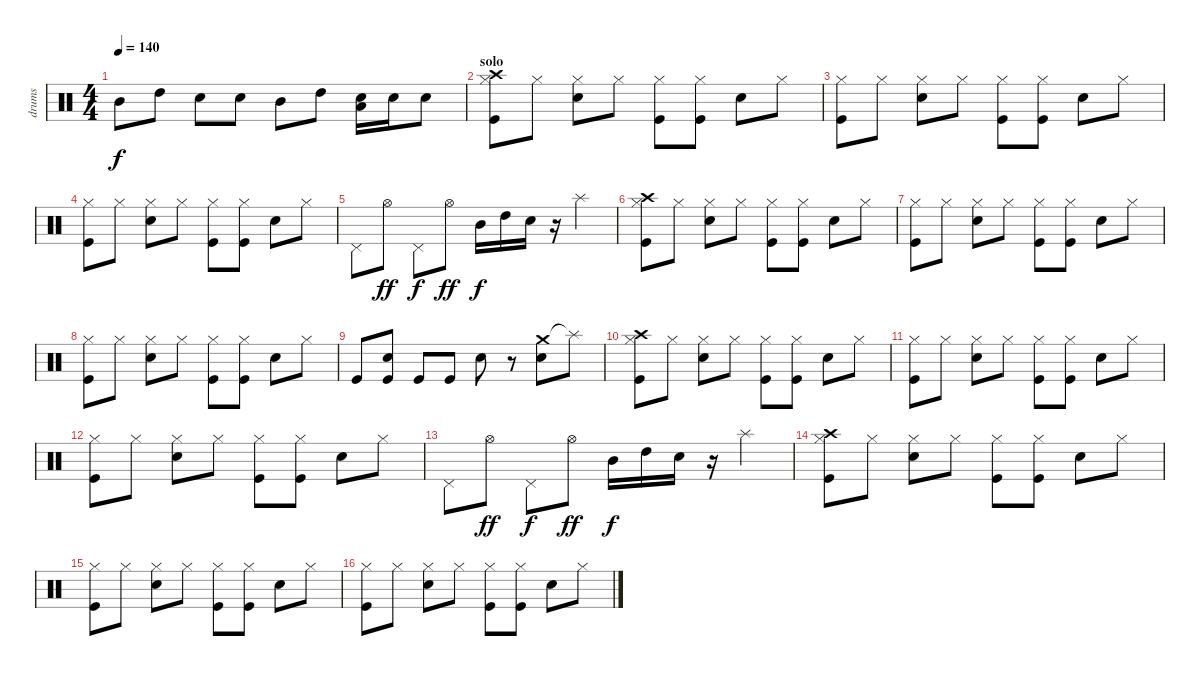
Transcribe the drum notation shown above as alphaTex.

\track ("drums" "drums") {instrument percussion}
\staff {score}
\articulation defaults
\ts (4 4)
\tempo 140
\clef neutral
\ks c "Mid Tom (hit)".8{dy f} "High Tom (hit)".8 "Snare (hit) 2".8 "Snare (hit) 2".8 "Mid Tom (hit)".8 "High Tom (hit)".8
("Electric Snare (hit)" "Low Tom (hit)").16 "Electric Snare (hit)".16 "Electric Snare (hit)".8 |
\section ("" "solo")
("Crash high (hit)" "Hi-Hat (closed)" "Kick (hit)").8 "Hi-Hat (closed)".8 ("Hi-Hat (closed)" "Snare (hit) 2").8 "Hi-Hat (closed)".8 ("Hi-Hat (closed)" "Kick (hit)").8 ("Hi-Hat (closed)" "Kick (hit)").8 "Snare (hit) 2".8 "Hi-Hat (closed)".8 |
("Hi-Hat (closed)" "Kick (hit)").8 "Hi-Hat (closed)".8 ("Hi-Hat (closed)" "Snare (hit) 2").8 "Hi-Hat (closed)".8 ("Hi-Hat (closed)" "Kick (hit)").8 ("Hi-Hat (closed)" "Kick (hit)").8 "Snare (hit) 2".8 "Hi-Hat (closed)".8 |
("Hi-Hat (closed)" "Kick (hit)").8 "Hi-Hat (closed)".8 ("Hi-Hat (closed)" "Snare (hit) 2").8 "Hi-Hat (closed)".8 ("Hi-Hat (closed)" "Kick (hit)").8 ("Hi-Hat (closed)" "Kick (hit)").8 "Snare (hit) 2".8 "Hi-Hat (closed)".8 |
"Pedal Hi-Hat (hit)".8 "Hi-Hat (open)".8{dy ff} "Pedal Hi-Hat (hit)".8{dy f} "Hi-Hat (open)".8{dy ff} "Mid Tom (hit)".16{dy f} "High Tom (hit)".16 "Snare (hit) 2".16 r.16 "Splash (hit)".4 |
("Crash high (hit)" "Hi-Hat (closed)" "Kick (hit)").8 "Hi-Hat (closed)".8 ("Hi-Hat (closed)" "Snare (hit) 2").8 "Hi-Hat (closed)".8 ("Hi-Hat (closed)" "Kick (hit)").8 ("Hi-Hat (closed)" "Kick (hit)").8 "Snare (hit) 2".8 "Hi-Hat (closed)".8 |
("Hi-Hat (closed)" "Kick (hit)").8 "Hi-Hat (closed)".8 ("Hi-Hat (closed)" "Snare (hit) 2").8 "Hi-Hat (closed)".8 ("Hi-Hat (closed)" "Kick (hit)").8 ("Hi-Hat (closed)" "Kick (hit)").8 "Snare (hit) 2".8 "Hi-Hat (closed)".8 |
("Hi-Hat (closed)" "Kick (hit)").8 "Hi-Hat (closed)".8 ("Hi-Hat (closed)" "Snare (hit) 2").8 "Hi-Hat (closed)".8 ("Hi-Hat (closed)" "Kick (hit)").8 ("Hi-Hat (closed)" "Kick (hit)").8 "Snare (hit) 2".8 "Hi-Hat (closed)".8 |
"Kick (hit)".8 ("Snare (hit) 2" "Kick (hit)").8 "Kick (hit)".8 "Kick (hit)".8 "Snare (hit) 2".8 r.8 ("Crash medium (hit)" "Snare (hit) 2").8 "Splash (hit)"{t}.8 |
("Crash high (hit)" "Hi-Hat (closed)" "Kick (hit)").8 "Hi-Hat (closed)".8 ("Hi-Hat (closed)" "Snare (hit) 2").8 "Hi-Hat (closed)".8 ("Hi-Hat (closed)" "Kick (hit)").8 ("Hi-Hat (closed)" "Kick (hit)").8 "Snare (hit) 2".8 "Hi-Hat (closed)".8 |
("Hi-Hat (closed)" "Kick (hit)").8 "Hi-Hat (closed)".8 ("Hi-Hat (closed)" "Snare (hit) 2").8 "Hi-Hat (closed)".8 ("Hi-Hat (closed)" "Kick (hit)").8 ("Hi-Hat (closed)" "Kick (hit)").8 "Snare (hit) 2".8 "Hi-Hat (closed)".8 |
("Hi-Hat (closed)" "Kick (hit)").8 "Hi-Hat (closed)".8 ("Hi-Hat (closed)" "Snare (hit) 2").8 "Hi-Hat (closed)".8 ("Hi-Hat (closed)" "Kick (hit)").8 ("Hi-Hat (closed)" "Kick (hit)").8 "Snare (hit) 2".8 "Hi-Hat (closed)".8 |
"Pedal Hi-Hat (hit)".8 "Hi-Hat (open)".8{dy ff} "Pedal Hi-Hat (hit)".8{dy f} "Hi-Hat (open)".8{dy ff} "Mid Tom (hit)".16{dy f} "High Tom (hit)".16 "Snare (hit) 2".16 r.16 "Splash (hit)".4 |
("Crash high (hit)" "Hi-Hat (closed)" "Kick (hit)").8 "Hi-Hat (closed)".8 ("Hi-Hat (closed)" "Snare (hit) 2").8 "Hi-Hat (closed)".8 ("Hi-Hat (closed)" "Kick (hit)").8 ("Hi-Hat (closed)" "Kick (hit)").8 "Snare (hit) 2".8 "Hi-Hat (closed)".8 |
("Hi-Hat (closed)" "Kick (hit)").8 "Hi-Hat (closed)".8 ("Hi-Hat (closed)" "Snare (hit) 2").8 "Hi-Hat (closed)".8 ("Hi-Hat (closed)" "Kick (hit)").8 ("Hi-Hat (closed)" "Kick (hit)").8 "Snare (hit) 2".8 "Hi-Hat (closed)".8 |
("Hi-Hat (closed)" "Kick (hit)").8 "Hi-Hat (closed)".8 ("Hi-Hat (closed)" "Snare (hit) 2").8 "Hi-Hat (closed)".8 ("Hi-Hat (closed)" "Kick (hit)").8 ("Hi-Hat (closed)" "Kick (hit)").8 "Snare (hit) 2".8 "Hi-Hat (closed)".8
